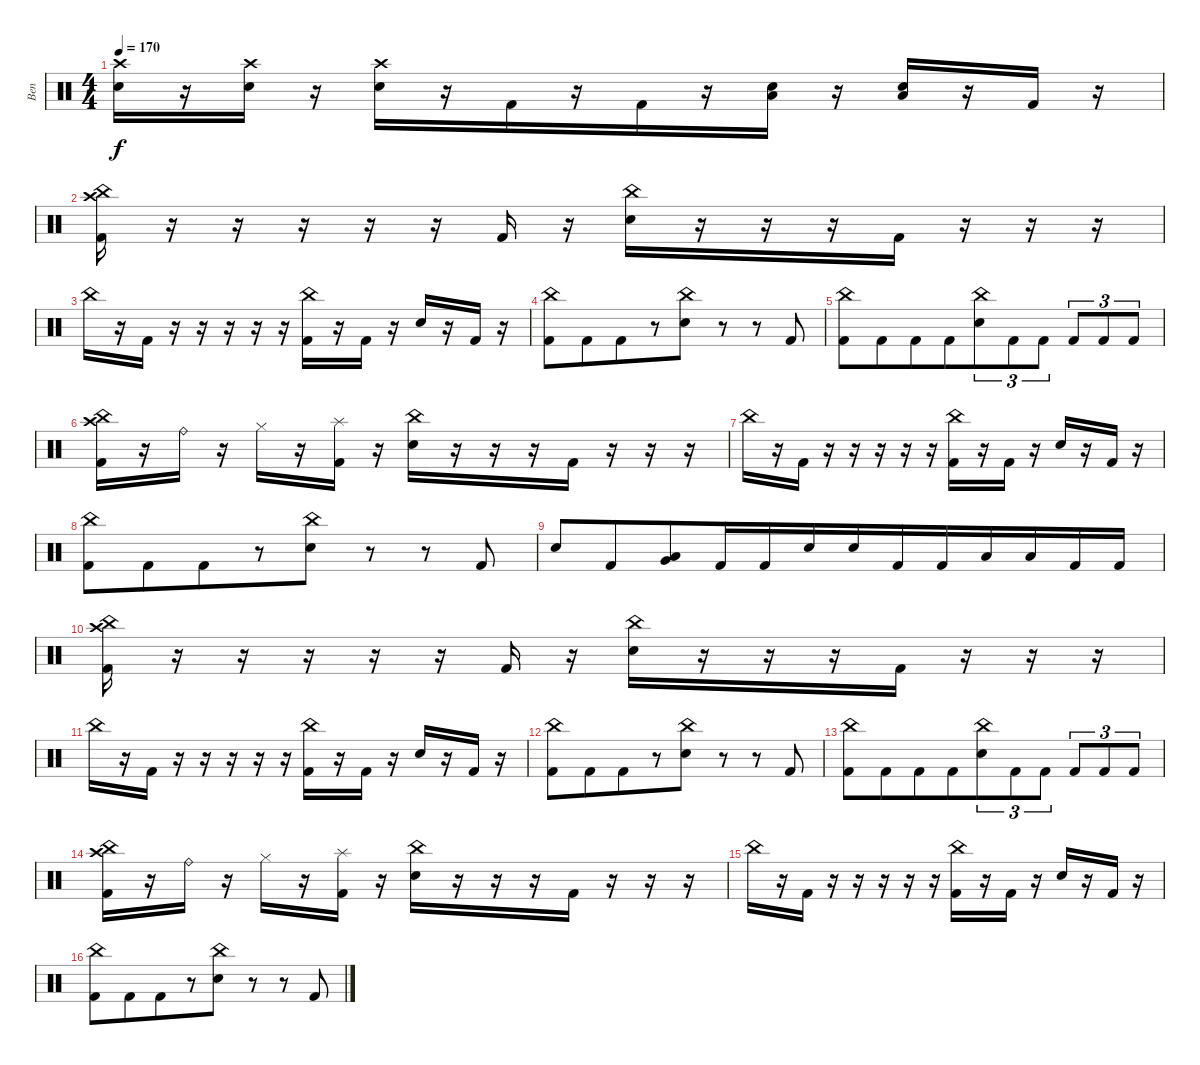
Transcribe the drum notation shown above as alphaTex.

\track ("Ben" "Ben") {instrument percussion}
\staff {score}
\articulation defaults
\ts (4 4)
\tempo 170
\clef neutral
\ks c
("Electric Snare (hit)" "Crash high (hit)").16{dy f} r.16{beam merge} ("Crash high (hit)" "Electric Snare (hit)").16 r.16{beam merge} ("Crash high (hit)" "Electric Snare (hit)").16{beam merge} r.16{beam merge} "Kick (hit) 2".16{beam merge} r.16{beam merge} "Kick (hit) 2".16 r.16{beam merge} ("Electric Snare (hit)" "Low Floor Tom (hit)").16 r.16{beam merge} ("Electric Snare (hit)" "Low Floor Tom (hit)").16{beam merge} r.16{beam merge} "Kick (hit) 2".16 r.16 |
("China (hit)" "Kick (hit) 2" "Crash high (hit)").16 r.16{beam merge} r.16 r.16{beam merge} r.16 r.16 "Kick (hit) 2".16 r.16 ("Electric Snare (hit)" "China (hit)").16{beam merge} r.16 r.16 r.16 "Kick (hit) 2".16 r.16 r.16 r.16 |
"China (hit)".16{beam merge} r.16{beam merge} "Kick (hit) 2".16 r.16 r.16{beam merge} r.16 r.16 r.16 ("Kick (hit) 2" "China (hit)").16{beam merge} r.16{beam merge} "Kick (hit) 2".16 r.16 "Electric Snare (hit)".16 r.16 "Kick (hit) 2".16{beam merge} r.16 |
("Kick (hit) 2" "China (hit)").8 "Kick (hit) 2".8{beam merge} "Kick (hit) 2".8{beam merge} r.8{beam merge} ("China (hit)" "Electric Snare (hit)").8 r.8{beam merge} r.8{beam merge} "Kick (hit) 2".8 |
("China (hit)" "Kick (hit) 2").8 "Kick (hit) 2".8{beam merge} "Kick (hit) 2".8 "Kick (hit) 2".8{beam merge} ("China (hit)" "Electric Snare (hit)").8{tu (3 2)} "Kick (hit) 2".8{tu (3 2)} "Kick (hit) 2".8{tu (3 2)} "Kick (hit) 2".8{tu (3 2) beam merge} "Kick (hit) 2".8{tu (3 2) beam merge} "Kick (hit) 2".8{tu (3 2)} |
("China (hit)" "Kick (hit) 2" "Crash high (hit)").16 r.16{beam merge} "Ride (bell)".16 r.16{beam merge} "Hi-Hat (closed)".16 r.16 ("Splash (hit)" "Kick (hit) 2").16 r.16 ("Electric Snare (hit)" "China (hit)").16{beam merge} r.16 r.16 r.16 "Kick (hit) 2".16 r.16 r.16 r.16 |
"China (hit)".16{beam merge} r.16{beam merge} "Kick (hit) 2".16 r.16 r.16{beam merge} r.16 r.16 r.16 ("Kick (hit) 2" "China (hit)").16{beam merge} r.16{beam merge} "Kick (hit) 2".16 r.16 "Electric Snare (hit)".16 r.16 "Kick (hit) 2".16{beam merge} r.16 |
("Kick (hit) 2" "China (hit)").8 "Kick (hit) 2".8{beam merge} "Kick (hit) 2".8{beam merge} r.8{beam merge} ("China (hit)" "Electric Snare (hit)").8 r.8{beam merge} r.8{beam merge} "Kick (hit) 2".8 |
"Electric Snare (hit)".8{beam merge} "Kick (hit) 2".8{beam merge} ("Low Floor Tom (hit)" "Very Low Tom (hit)").8 "Kick (hit) 2".16{beam merge} "Kick (hit) 2".16{beam merge} "Electric Snare (hit)".16 "Electric Snare (hit)".16{beam merge} "Kick (hit) 2".16 "Kick (hit) 2".16{beam merge} "Low Floor Tom (hit)".16 "Low Floor Tom (hit)".16{beam merge} "Kick (hit) 2".16 "Kick (hit) 2".16 |
("China (hit)" "Kick (hit) 2" "Crash high (hit)").16 r.16{beam merge} r.16 r.16{beam merge} r.16 r.16 "Kick (hit) 2".16 r.16 ("Electric Snare (hit)" "China (hit)").16{beam merge} r.16 r.16 r.16 "Kick (hit) 2".16 r.16 r.16 r.16 |
"China (hit)".16{beam merge} r.16{beam merge} "Kick (hit) 2".16 r.16 r.16{beam merge} r.16 r.16 r.16 ("Kick (hit) 2" "China (hit)").16{beam merge} r.16{beam merge} "Kick (hit) 2".16 r.16 "Electric Snare (hit)".16 r.16 "Kick (hit) 2".16{beam merge} r.16 |
("Kick (hit) 2" "China (hit)").8 "Kick (hit) 2".8{beam merge} "Kick (hit) 2".8{beam merge} r.8{beam merge} ("China (hit)" "Electric Snare (hit)").8 r.8{beam merge} r.8{beam merge} "Kick (hit) 2".8 |
("China (hit)" "Kick (hit) 2").8 "Kick (hit) 2".8{beam merge} "Kick (hit) 2".8 "Kick (hit) 2".8{beam merge} ("China (hit)" "Electric Snare (hit)").8{tu (3 2)} "Kick (hit) 2".8{tu (3 2)} "Kick (hit) 2".8{tu (3 2)} "Kick (hit) 2".8{tu (3 2) beam merge} "Kick (hit) 2".8{tu (3 2) beam merge} "Kick (hit) 2".8{tu (3 2)} |
("China (hit)" "Kick (hit) 2" "Crash high (hit)").16 r.16{beam merge} "Ride (bell)".16 r.16{beam merge} "Hi-Hat (closed)".16 r.16 ("Splash (hit)" "Kick (hit) 2").16 r.16 ("Electric Snare (hit)" "China (hit)").16{beam merge} r.16 r.16 r.16 "Kick (hit) 2".16 r.16 r.16 r.16 |
"China (hit)".16{beam merge} r.16{beam merge} "Kick (hit) 2".16 r.16 r.16{beam merge} r.16 r.16 r.16 ("Kick (hit) 2" "China (hit)").16{beam merge} r.16{beam merge} "Kick (hit) 2".16 r.16 "Electric Snare (hit)".16 r.16 "Kick (hit) 2".16{beam merge} r.16 |
("Kick (hit) 2" "China (hit)").8 "Kick (hit) 2".8{beam merge} "Kick (hit) 2".8{beam merge} r.8{beam merge} ("China (hit)" "Electric Snare (hit)").8 r.8{beam merge} r.8{beam merge} "Kick (hit) 2".8
